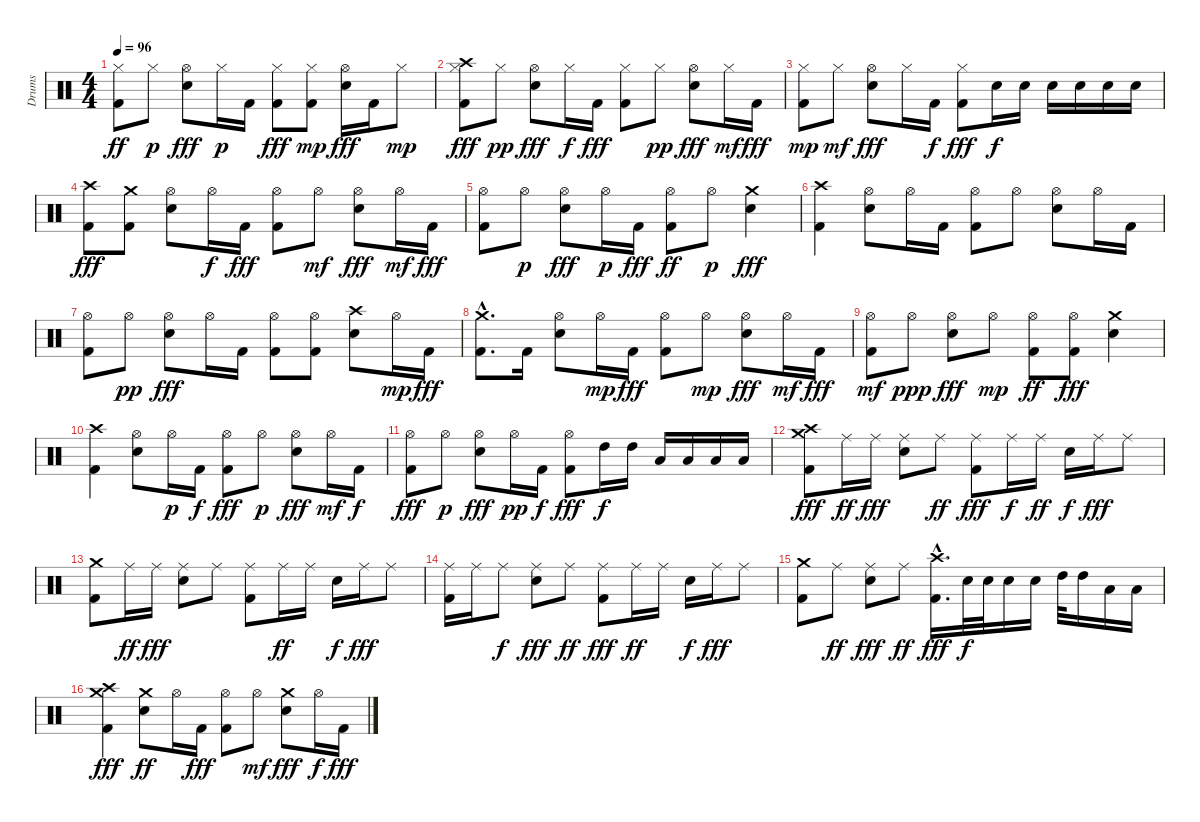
\track ("Drums" "Drums") {instrument percussion}
\staff {score}
\articulation defaults
\ts (4 4)
\tempo 96
\clef neutral
\ks c
("Kick (hit) 2" "Hi-Hat (closed)").8{dy ff} "Hi-Hat (closed)".8{dy p} ("Hi-Hat (open)" "Snare (hit) 2").8{dy fff} "Hi-Hat (closed)".16{dy p} "Kick (hit) 2".16 ("Hi-Hat (closed)" "Kick (hit) 2").8{dy fff} ("Kick (hit) 2" "Hi-Hat (closed)").8{dy mp} ("Hi-Hat (open)" "Snare (hit) 2").16{dy fff} "Kick (hit) 2".16 "Hi-Hat (closed)".8{dy mp} |
("Crash high (hit)" "Kick (hit) 2" "Hi-Hat (closed)").8{dy fff} "Hi-Hat (closed)".8{dy pp} ("Hi-Hat (open)" "Snare (hit) 2").8{dy fff} "Hi-Hat (closed)".16{dy f} "Kick (hit) 2".16{dy fff} ("Hi-Hat (closed)" "Kick (hit) 2").8 "Hi-Hat (closed)".8{dy pp} ("Snare (hit) 2" "Hi-Hat (open)").8{dy fff} "Hi-Hat (closed)".16{dy mf} "Kick (hit) 2".16{dy fff} |
("Hi-Hat (closed)" "Kick (hit) 2").8{dy mp} "Hi-Hat (closed)".8{dy mf} ("Hi-Hat (open)" "Snare (hit) 2").8{dy fff} "Hi-Hat (closed)".16 "Kick (hit) 2".16{dy f} ("Hi-Hat (closed)" "Kick (hit) 2").8{dy fff} "Snare (hit) 2".16{dy f} "Snare (hit) 2".16 "Snare (hit) 2".16 "Snare (hit) 2".16 "Snare (hit) 2".16 "Snare (hit) 2".16 |
("Kick (hit) 2" "Crash high (hit)").8{dy fff} ("Kick (hit) 2" "Crash medium (hit)").8 ("Snare (hit) 2" "Hi-Hat (open)").8 "Hi-Hat (open)".16{dy f} "Kick (hit) 2".16{dy fff} ("Hi-Hat (open)" "Kick (hit) 2").8 "Hi-Hat (open)".8{dy mf} ("Snare (hit) 2" "Hi-Hat (open)").8{dy fff} "Hi-Hat (open)".16{dy mf} "Kick (hit) 2".16{dy fff} |
("Kick (hit) 2" "Hi-Hat (open)").8 "Hi-Hat (open)".8{dy p} ("Hi-Hat (open)" "Snare (hit) 2").8{dy fff} "Hi-Hat (open)".16{dy p} "Kick (hit) 2".16{dy fff} ("Kick (hit) 2" "Hi-Hat (open)").8{dy ff} "Hi-Hat (open)".8{dy p} ("Snare (hit) 2" "Crash medium (hit)").4{dy fff} |
("Crash high (hit)" "Kick (hit) 2").4 ("Hi-Hat (open)" "Snare (hit) 2").8 "Hi-Hat (open)".16 "Kick (hit) 2".16 ("Hi-Hat (open)" "Kick (hit) 2").8 "Hi-Hat (open)".8 ("Hi-Hat (open)" "Snare (hit) 2").8 "Hi-Hat (open)".16 "Kick (hit) 2".16 |
("Hi-Hat (open)" "Kick (hit) 2").8 "Hi-Hat (open)".8{dy pp} ("Hi-Hat (open)" "Snare (hit) 2").8{dy fff} "Hi-Hat (open)".16 "Kick (hit) 2".16 ("Hi-Hat (open)" "Kick (hit) 2").8 ("Hi-Hat (open)" "Kick (hit) 2").8 ("Snare (hit) 2" "Crash high (hit)").8 "Hi-Hat (open)".16{dy mp} "Kick (hit) 2".16{dy fff} |
("Kick (hit) 2"{hac} "Crash medium (hit)"{hac}).8{d} "Kick (hit) 2".16 ("Hi-Hat (open)" "Snare (hit) 2").8 "Hi-Hat (open)".16{dy mp} "Kick (hit) 2".16{dy fff} ("Hi-Hat (open)" "Kick (hit) 2").8 "Hi-Hat (open)".8{dy mp} ("Hi-Hat (open)" "Snare (hit) 2").8{dy fff} "Hi-Hat (open)".16{dy mf} "Kick (hit) 2".16{dy fff} |
("Hi-Hat (open)" "Kick (hit) 2").8{dy mf} "Hi-Hat (open)".8{dy ppp} ("Hi-Hat (open)" "Snare (hit) 2").8{dy fff} "Hi-Hat (open)".8{dy mp} ("Hi-Hat (open)" "Kick (hit) 2").8{dy ff} ("Hi-Hat (open)" "Kick (hit) 2").8{dy fff} ("Crash medium (hit)" "Snare (hit) 2").4 |
("Crash high (hit)" "Kick (hit) 2").4 ("Hi-Hat (open)" "Snare (hit) 2").8 "Hi-Hat (open)".16{dy p} "Kick (hit) 2".16{dy f} ("Hi-Hat (open)" "Kick (hit) 2").8{dy fff} "Hi-Hat (open)".8{dy p} ("Hi-Hat (open)" "Snare (hit) 2").8{dy fff} "Hi-Hat (open)".16{dy mf} "Kick (hit) 2".16{dy f} |
("Hi-Hat (open)" "Kick (hit) 2").8{dy fff} "Hi-Hat (open)".8{dy p} ("Hi-Hat (open)" "Snare (hit) 2").8{dy fff} "Hi-Hat (open)".16{dy pp} "Kick (hit) 2".16{dy f} ("Hi-Hat (open)" "Kick (hit) 2").8{dy fff} "High Tom (hit)".16{dy f} "High Tom (hit)".16 "Low Tom (hit)".16 "Low Tom (hit)".16 "Low Floor Tom (hit)".16 "Low Floor Tom (hit)".16 |
("Crash medium (hit)" "Crash high (hit)" "Kick (hit) 2").8{dy fff} "Ride (middle)".16{dy ff} "Ride (middle)".16{dy fff} ("Ride (middle)" "Snare (hit) 2").8 "Ride (middle)".8{dy ff} ("Ride (middle)" "Kick (hit) 2").8{dy fff} "Ride (middle)".16{dy f} "Ride (middle)".16{dy ff} "Snare (hit) 2".16{dy f} "Ride (middle)".16{dy fff} "Ride (middle)".8 |
("Crash medium (hit)" "Kick (hit) 2").8 "Ride (middle)".16{dy ff} "Ride (middle)".16{dy fff} ("Ride (middle)" "Snare (hit) 2").8 "Ride (middle)".8 ("Ride (middle)" "Kick (hit) 2").8 "Ride (middle)".16{dy ff} "Ride (middle)".16 "Snare (hit) 2".16{dy f} "Ride (middle)".16{dy fff} "Ride (middle)".8 |
("Ride (middle)" "Kick (hit) 2").16 "Ride (middle)".16 "Ride (middle)".8{dy f} ("Ride (middle)" "Snare (hit) 2").8{dy fff} "Ride (middle)".8{dy ff} ("Ride (middle)" "Kick (hit) 2").8{dy fff} "Ride (middle)".16{dy ff} "Ride (middle)".16 "Snare (hit) 2".16{dy f} "Ride (middle)".16{dy fff} "Ride (middle)".8 |
("Crash medium (hit)" "Kick (hit) 2").8 "Ride (middle)".8{dy ff} ("Ride (middle)" "Snare (hit) 2").8{dy fff} "Ride (middle)".8{dy ff} ("Crash high (hit)"{hac} "Kick (hit) 2"{hac}).16{d dy fff} "Snare (hit) 2".32{dy f} "Snare (hit) 2".32 "Snare (hit) 2".16 "Snare (hit) 2".16 "High Tom (hit)".32 "High Tom (hit)".16 "Low Tom (hit)".16 "Low Tom (hit)".16 |
("Crash high (hit)" "Crash medium (hit)" "Kick (hit) 2").4{dy fff} ("Snare (hit) 2" "Crash medium (hit)").8{dy ff} "Hi-Hat (open)".16 "Kick (hit) 2".16{dy fff} ("Hi-Hat (open)" "Kick (hit) 2").8 "Hi-Hat (open)".8{dy mf} ("Crash medium (hit)" "Snare (hit) 2").8{dy fff} "Hi-Hat (open)".16{dy f} "Kick (hit) 2".16{dy fff}
